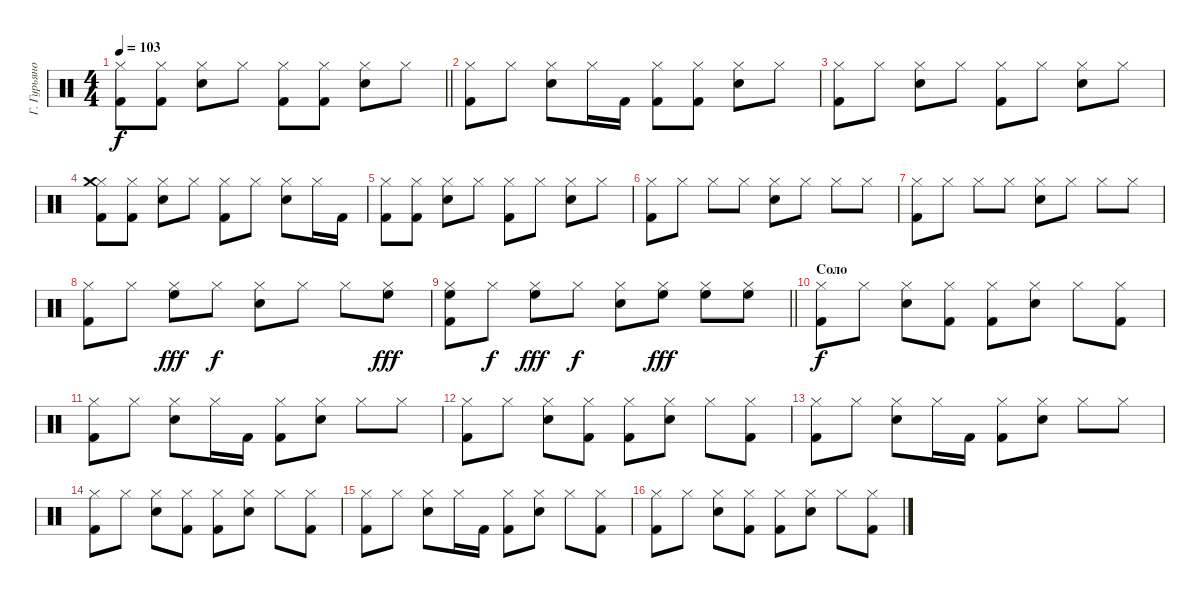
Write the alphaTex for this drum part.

\track ("Г. Гурьянов" "Г. Гурьяно") {instrument percussion}
\staff
\articulation defaults
\ts (4 4)
\tempo 103
\clef neutral
\barLineRight lightlight
\ks c
("Hi-Hat (closed)" "Kick (hit) 2").8{dy f} ("Hi-Hat (closed)" "Kick (hit) 2").8 ("Hi-Hat (closed)" "Snare (hit) 2").8 "Hi-Hat (closed)".8 ("Hi-Hat (closed)" "Kick (hit) 2").8 ("Hi-Hat (closed)" "Kick (hit) 2").8 ("Hi-Hat (closed)" "Snare (hit) 2").8 "Hi-Hat (closed)".8 |
("Hi-Hat (closed)" "Kick (hit) 2").8 "Hi-Hat (closed)".8 ("Hi-Hat (closed)" "Snare (hit) 2").8 "Hi-Hat (closed)".16 "Kick (hit) 2".16 ("Hi-Hat (closed)" "Kick (hit) 2").8 ("Hi-Hat (closed)" "Kick (hit) 2").8 ("Hi-Hat (closed)" "Snare (hit) 2").8 "Hi-Hat (closed)".8 |
("Hi-Hat (closed)" "Kick (hit) 2").8 "Hi-Hat (closed)".8 ("Hi-Hat (closed)" "Snare (hit) 2").8 "Hi-Hat (closed)".8 ("Hi-Hat (closed)" "Kick (hit) 2").8 "Hi-Hat (closed)".8 ("Hi-Hat (closed)" "Snare (hit) 2").8 "Hi-Hat (closed)".8 |
("Hi-Hat (closed)" "Crash medium (hit)" "Kick (hit) 2").8 ("Hi-Hat (closed)" "Kick (hit) 2").8 ("Hi-Hat (closed)" "Snare (hit) 2").8 "Hi-Hat (closed)".8 ("Hi-Hat (closed)" "Kick (hit) 2").8 "Hi-Hat (closed)".8 ("Hi-Hat (closed)" "Snare (hit) 2").8 "Hi-Hat (closed)".16 "Kick (hit) 2".16 |
("Hi-Hat (closed)" "Kick (hit) 2").8 ("Hi-Hat (closed)" "Kick (hit) 2").8 ("Hi-Hat (closed)" "Snare (hit) 2").8 "Hi-Hat (closed)".8 ("Hi-Hat (closed)" "Kick (hit) 2").8 "Hi-Hat (closed)".8 ("Hi-Hat (closed)" "Snare (hit) 2").8 "Hi-Hat (closed)".8 |
("Hi-Hat (closed)" "Kick (hit) 2").8 "Hi-Hat (closed)".8 "Hi-Hat (closed)".8 "Hi-Hat (closed)".8 ("Hi-Hat (closed)" "Snare (hit) 2").8 "Hi-Hat (closed)".8 "Hi-Hat (closed)".8 "Hi-Hat (closed)".8 |
("Hi-Hat (closed)" "Kick (hit) 2").8 "Hi-Hat (closed)".8 "Hi-Hat (closed)".8 "Hi-Hat (closed)".8 ("Hi-Hat (closed)" "Snare (hit) 2").8 "Hi-Hat (closed)".8 "Hi-Hat (closed)".8 "Hi-Hat (closed)".8 |
("Hi-Hat (closed)" "Kick (hit) 2").8 "Hi-Hat (closed)".8 ("Hi-Hat (closed)" "High Floor Tom (hit)").8{dy fff} "Hi-Hat (closed)".8{dy f} ("Hi-Hat (closed)" "Snare (hit) 2").8 "Hi-Hat (closed)".8 "Hi-Hat (closed)".8 ("Hi-Hat (closed)" "High Floor Tom (hit)").8{dy fff} |
\barLineRight lightlight
("Hi-Hat (closed)" "High Floor Tom (hit)" "Kick (hit) 2").8 "Hi-Hat (closed)".8{dy f} ("Hi-Hat (closed)" "High Floor Tom (hit)").8{dy fff} "Hi-Hat (closed)".8{dy f} ("Hi-Hat (closed)" "Snare (hit) 2").8 ("Hi-Hat (closed)" "High Floor Tom (hit)").8{dy fff} ("Hi-Hat (closed)" "High Floor Tom (hit)").8 ("Hi-Hat (closed)" "High Floor Tom (hit)").8 |
\section ("" "Соло")
("Hi-Hat (closed)" "Kick (hit) 2").8{dy f} "Hi-Hat (closed)".8 ("Hi-Hat (closed)" "Snare (hit) 2").8 ("Hi-Hat (closed)" "Kick (hit) 2").8 ("Hi-Hat (closed)" "Kick (hit) 2").8 ("Hi-Hat (closed)" "Snare (hit) 2").8 "Hi-Hat (closed)".8 ("Hi-Hat (closed)" "Kick (hit) 2").8 |
("Hi-Hat (closed)" "Kick (hit) 2").8 "Hi-Hat (closed)".8 ("Hi-Hat (closed)" "Snare (hit) 2").8 "Hi-Hat (closed)".16 "Kick (hit) 2".16 ("Hi-Hat (closed)" "Kick (hit) 2").8 ("Hi-Hat (closed)" "Snare (hit) 2").8 "Hi-Hat (closed)".8 "Hi-Hat (closed)".8 |
("Hi-Hat (closed)" "Kick (hit) 2").8 "Hi-Hat (closed)".8 ("Hi-Hat (closed)" "Snare (hit) 2").8 ("Hi-Hat (closed)" "Kick (hit) 2").8 ("Hi-Hat (closed)" "Kick (hit) 2").8 ("Hi-Hat (closed)" "Snare (hit) 2").8 "Hi-Hat (closed)".8 ("Hi-Hat (closed)" "Kick (hit) 2").8 |
("Hi-Hat (closed)" "Kick (hit) 2").8 "Hi-Hat (closed)".8 ("Hi-Hat (closed)" "Snare (hit) 2").8 "Hi-Hat (closed)".16 "Kick (hit) 2".16 ("Hi-Hat (closed)" "Kick (hit) 2").8 ("Hi-Hat (closed)" "Snare (hit) 2").8 "Hi-Hat (closed)".8 "Hi-Hat (closed)".8 |
("Hi-Hat (closed)" "Kick (hit) 2").8 "Hi-Hat (closed)".8 ("Hi-Hat (closed)" "Snare (hit) 2").8 ("Hi-Hat (closed)" "Kick (hit) 2").8 ("Hi-Hat (closed)" "Kick (hit) 2").8 ("Hi-Hat (closed)" "Snare (hit) 2").8 "Hi-Hat (closed)".8 ("Hi-Hat (closed)" "Kick (hit) 2").8 |
("Hi-Hat (closed)" "Kick (hit) 2").8 "Hi-Hat (closed)".8 ("Hi-Hat (closed)" "Snare (hit) 2").8 "Hi-Hat (closed)".16 "Kick (hit) 2".16 ("Hi-Hat (closed)" "Kick (hit) 2").8 ("Hi-Hat (closed)" "Snare (hit) 2").8 "Hi-Hat (closed)".8 ("Hi-Hat (closed)" "Kick (hit) 2").8 |
("Hi-Hat (closed)" "Kick (hit) 2").8 "Hi-Hat (closed)".8 ("Hi-Hat (closed)" "Snare (hit) 2").8 ("Hi-Hat (closed)" "Kick (hit) 2").8 ("Hi-Hat (closed)" "Kick (hit) 2").8 ("Hi-Hat (closed)" "Snare (hit) 2").8 "Hi-Hat (closed)".8 ("Hi-Hat (closed)" "Kick (hit) 2").8
